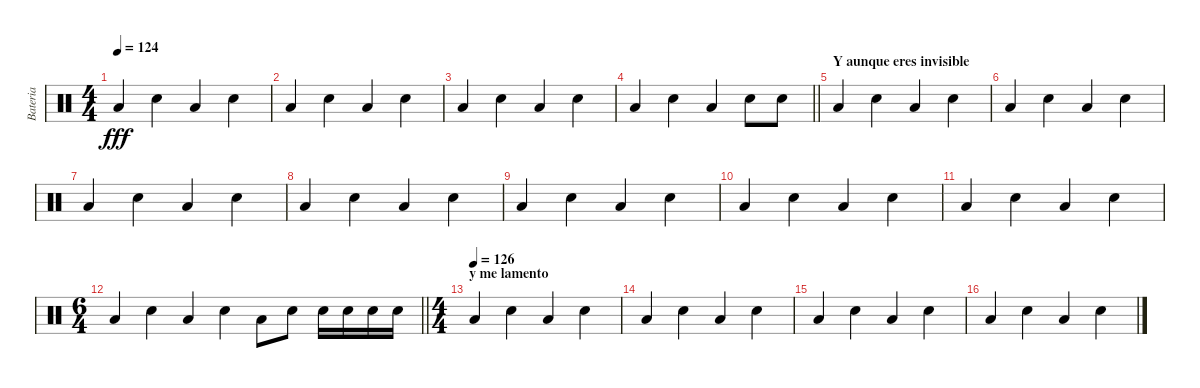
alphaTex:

\track ("Bateria" "Bateria") {instrument percussion}
\staff {score}
\articulation defaults
\ts (4 4)
\tempo 124
\clef neutral
\ks c "Low Floor Tom (hit)".4{dy fff} "Snare (hit) 2".4 "Low Floor Tom (hit)".4 "Snare (hit) 2".4
|
"Low Floor Tom (hit)".4 "Snare (hit) 2".4 "Low Floor Tom (hit)".4 "Snare (hit) 2".4 |
"Low Floor Tom (hit)".4 "Snare (hit) 2".4 "Low Floor Tom (hit)".4 "Snare (hit) 2".4 |
\barLineRight lightlight "Low Floor Tom (hit)".4 "Snare (hit) 2".4 "Low Floor Tom (hit)".4 "Snare (hit) 2".8 "Snare (hit) 2".8
|
\section ("" "Y aunque eres invisible")
"Low Floor Tom (hit)".4 "Snare (hit) 2".4 "Low Floor Tom (hit)".4 "Snare (hit) 2".4 |
"Low Floor Tom (hit)".4 "Snare (hit) 2".4 "Low Floor Tom (hit)".4 "Snare (hit) 2".4 |
"Low Floor Tom (hit)".4 "Snare (hit) 2".4 "Low Floor Tom (hit)".4 "Snare (hit) 2".4 |
"Low Floor Tom (hit)".4 "Snare (hit) 2".4 "Low Floor Tom (hit)".4 "Snare (hit) 2".4 |
"Low Floor Tom (hit)".4 "Snare (hit) 2".4 "Low Floor Tom (hit)".4 "Snare (hit) 2".4 |
"Low Floor Tom (hit)".4 "Snare (hit) 2".4 "Low Floor Tom (hit)".4 "Snare (hit) 2".4 |
"Low Floor Tom (hit)".4 "Snare (hit) 2".4 "Low Floor Tom (hit)".4 "Snare (hit) 2".4 |
\ts (6 4)
\barLineRight lightlight "Low Floor Tom (hit)".4 "Snare (hit) 2".4 "Low Floor Tom (hit)".4 "Snare (hit) 2".4 "Low Floor Tom (hit)".8 "Snare (hit) 2".8 "Snare (hit) 2".16 "Snare (hit) 2".16 "Snare (hit) 2".16 "Snare (hit) 2".16
|
\ts (4 4)
\section ("" "y me lamento")
\tempo (126)
"Low Floor Tom (hit)".4 "Snare (hit) 2".4 "Low Floor Tom (hit)".4 "Snare (hit) 2".4 |
"Low Floor Tom (hit)".4 "Snare (hit) 2".4 "Low Floor Tom (hit)".4 "Snare (hit) 2".4 |
"Low Floor Tom (hit)".4 "Snare (hit) 2".4 "Low Floor Tom (hit)".4 "Snare (hit) 2".4 |
"Low Floor Tom (hit)".4 "Snare (hit) 2".4 "Low Floor Tom (hit)".4 "Snare (hit) 2".4
